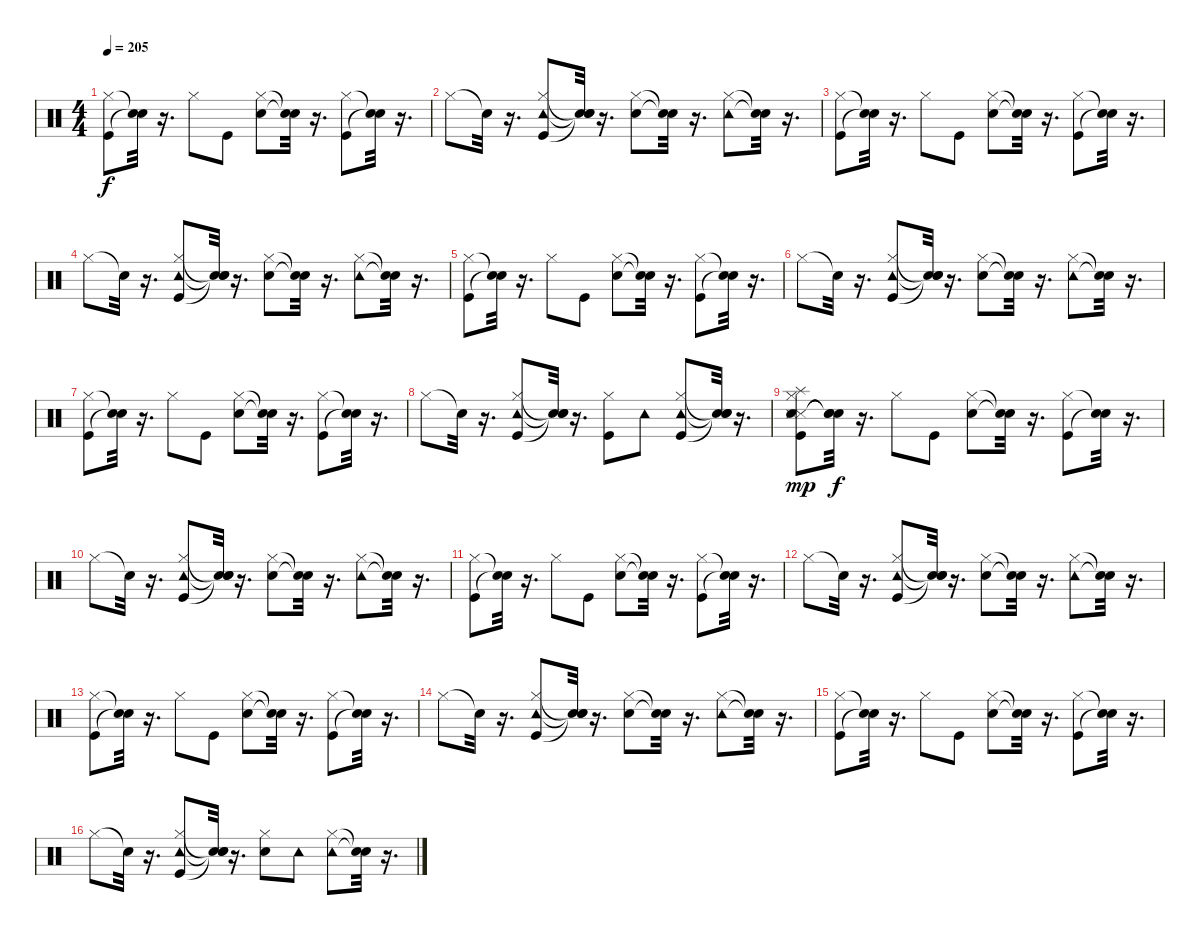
\track "" {instrument percussion}
\staff {score}
\articulation defaults
\ts (4 4)
\tempo 205
\clef neutral
\ks c
("Kick (hit)" "Hi-Hat (closed)").8{dy f} ("Snare (hit)"{t} "Snare (hit)"{t}).32 r.16{d} "Hi-Hat (closed)".8 "Kick (hit)".8 ("Hi-Hat (closed)" "Electric Snare (hit)").8 ("Snare (hit)"{t} "Snare (hit)"{t}).32 r.16{d} ("Hi-Hat (closed)" "Kick (hit)").8 ("Snare (hit)"{t} "Snare (hit)"{t}).32 r.16{d} |
"Hi-Hat (closed)".8 "Snare (hit)"{t}.32 r.16{d} ("Hi-Hat (closed)" "Kick (hit)" "Tambourine (hit)").8 ("Snare (hit)"{t} "Snare (hit)"{t} "Snare (hit)"{t}).32 r.16{d} ("Hi-Hat (closed)" "Electric Snare (hit)").8 ("Snare (hit)"{t} "Snare (hit)"{t}).32 r.16{d} ("Hi-Hat (closed)" "Tambourine (hit)").8 ("Snare (hit)"{t} "Snare (hit)"{t}).32 r.16{d} |
("Kick (hit)" "Hi-Hat (closed)").8 ("Snare (hit)"{t} "Snare (hit)"{t}).32 r.16{d} "Hi-Hat (closed)".8 "Kick (hit)".8 ("Hi-Hat (closed)" "Electric Snare (hit)").8 ("Snare (hit)"{t} "Snare (hit)"{t}).32 r.16{d} ("Hi-Hat (closed)" "Kick (hit)").8 ("Snare (hit)"{t} "Snare (hit)"{t}).32 r.16{d} |
"Hi-Hat (closed)".8 "Snare (hit)"{t}.32 r.16{d} ("Hi-Hat (closed)" "Kick (hit)" "Tambourine (hit)").8 ("Snare (hit)"{t} "Snare (hit)"{t} "Snare (hit)"{t}).32 r.16{d} ("Hi-Hat (closed)" "Electric Snare (hit)").8 ("Snare (hit)"{t} "Snare (hit)"{t}).32 r.16{d} ("Hi-Hat (closed)" "Tambourine (hit)").8 ("Snare (hit)"{t} "Snare (hit)"{t}).32 r.16{d} |
("Kick (hit)" "Hi-Hat (closed)").8 ("Snare (hit)"{t} "Snare (hit)"{t}).32 r.16{d} "Hi-Hat (closed)".8 "Kick (hit)".8 ("Hi-Hat (closed)" "Electric Snare (hit)").8 ("Snare (hit)"{t} "Snare (hit)"{t}).32 r.16{d} ("Hi-Hat (closed)" "Kick (hit)").8 ("Snare (hit)"{t} "Snare (hit)"{t}).32 r.16{d} |
"Hi-Hat (closed)".8 "Snare (hit)"{t}.32 r.16{d} ("Hi-Hat (closed)" "Kick (hit)" "Tambourine (hit)").8 ("Snare (hit)"{t} "Snare (hit)"{t} "Snare (hit)"{t}).32 r.16{d} ("Hi-Hat (closed)" "Electric Snare (hit)").8 ("Snare (hit)"{t} "Snare (hit)"{t}).32 r.16{d} ("Hi-Hat (closed)" "Tambourine (hit)").8 ("Snare (hit)"{t} "Snare (hit)"{t}).32 r.16{d} |
("Kick (hit)" "Hi-Hat (closed)").8 ("Snare (hit)"{t} "Snare (hit)"{t}).32 r.16{d} "Hi-Hat (closed)".8 "Kick (hit)".8 ("Hi-Hat (closed)" "Electric Snare (hit)").8 ("Snare (hit)"{t} "Snare (hit)"{t}).32 r.16{d} ("Hi-Hat (closed)" "Kick (hit)").8 ("Snare (hit)"{t} "Snare (hit)"{t}).32 r.16{d} |
"Hi-Hat (closed)".8 "Snare (hit)"{t}.32 r.16{d} ("Hi-Hat (closed)" "Kick (hit)" "Tambourine (hit)").8 ("Snare (hit)"{t} "Snare (hit)"{t} "Snare (hit)"{t}).32 r.16{d} ("Hi-Hat (closed)" "Kick (hit)").8 "Tambourine (hit)".8 ("Hi-Hat (closed)" "Tambourine (hit)" "Kick (hit)").8 ("Snare (hit)"{t} "Snare (hit)"{t} "Snare (hit)"{t}).32 r.16{d} |
("Metronome (hit)" "Metronome (hit)" "Snare (hit) 2" "Kick (hit)" "Hi-Hat (closed)" "Splash (hit)").8{dy mp} ("Snare (hit)"{t} "Snare (hit)"{t} "Snare (hit)"{t}).32{dy f} r.16{d} "Hi-Hat (closed)".8 "Kick (hit)".8 ("Hi-Hat (closed)" "Electric Snare (hit)").8 ("Snare (hit)"{t} "Snare (hit)"{t}).32 r.16{d} ("Hi-Hat (closed)" "Kick (hit)").8 ("Snare (hit)"{t} "Snare (hit)"{t}).32 r.16{d} |
"Hi-Hat (closed)".8 "Snare (hit)"{t}.32 r.16{d} ("Hi-Hat (closed)" "Kick (hit)" "Tambourine (hit)").8 ("Snare (hit)"{t} "Snare (hit)"{t} "Snare (hit)"{t}).32 r.16{d} ("Hi-Hat (closed)" "Electric Snare (hit)").8 ("Snare (hit)"{t} "Snare (hit)"{t}).32 r.16{d} ("Hi-Hat (closed)" "Tambourine (hit)").8 ("Snare (hit)"{t} "Snare (hit)"{t}).32 r.16{d} |
("Kick (hit)" "Hi-Hat (closed)").8 ("Snare (hit)"{t} "Snare (hit)"{t}).32 r.16{d} "Hi-Hat (closed)".8 "Kick (hit)".8 ("Hi-Hat (closed)" "Electric Snare (hit)").8 ("Snare (hit)"{t} "Snare (hit)"{t}).32 r.16{d} ("Hi-Hat (closed)" "Kick (hit)").8 ("Snare (hit)"{t} "Snare (hit)"{t}).32 r.16{d} |
"Hi-Hat (closed)".8 "Snare (hit)"{t}.32 r.16{d} ("Hi-Hat (closed)" "Kick (hit)" "Tambourine (hit)").8 ("Snare (hit)"{t} "Snare (hit)"{t} "Snare (hit)"{t}).32 r.16{d} ("Hi-Hat (closed)" "Electric Snare (hit)").8 ("Snare (hit)"{t} "Snare (hit)"{t}).32 r.16{d} ("Hi-Hat (closed)" "Tambourine (hit)").8 ("Snare (hit)"{t} "Snare (hit)"{t}).32 r.16{d} |
("Kick (hit)" "Hi-Hat (closed)").8 ("Snare (hit)"{t} "Snare (hit)"{t}).32 r.16{d} "Hi-Hat (closed)".8 "Kick (hit)".8 ("Hi-Hat (closed)" "Electric Snare (hit)").8 ("Snare (hit)"{t} "Snare (hit)"{t}).32 r.16{d} ("Hi-Hat (closed)" "Kick (hit)").8 ("Snare (hit)"{t} "Snare (hit)"{t}).32 r.16{d} |
"Hi-Hat (closed)".8 "Snare (hit)"{t}.32 r.16{d} ("Hi-Hat (closed)" "Kick (hit)" "Tambourine (hit)").8 ("Snare (hit)"{t} "Snare (hit)"{t} "Snare (hit)"{t}).32 r.16{d} ("Hi-Hat (closed)" "Electric Snare (hit)").8 ("Snare (hit)"{t} "Snare (hit)"{t}).32 r.16{d} ("Hi-Hat (closed)" "Tambourine (hit)").8 ("Snare (hit)"{t} "Snare (hit)"{t}).32 r.16{d} |
("Kick (hit)" "Hi-Hat (closed)").8 ("Snare (hit)"{t} "Snare (hit)"{t}).32 r.16{d} "Hi-Hat (closed)".8 "Kick (hit)".8 ("Hi-Hat (closed)" "Electric Snare (hit)").8 ("Snare (hit)"{t} "Snare (hit)"{t}).32 r.16{d} ("Hi-Hat (closed)" "Kick (hit)").8 ("Snare (hit)"{t} "Snare (hit)"{t}).32 r.16{d} |
"Hi-Hat (closed)".8 "Snare (hit)"{t}.32 r.16{d} ("Hi-Hat (closed)" "Kick (hit)" "Tambourine (hit)").8 ("Snare (hit)"{t} "Snare (hit)"{t} "Snare (hit)"{t}).32 r.16{d} ("Hi-Hat (closed)" "Electric Snare (hit)").8 "Tambourine (hit)".8 ("Hi-Hat (closed)" "Tambourine (hit)").8 ("Snare (hit)"{t} "Snare (hit)"{t}).32 r.16{d}
